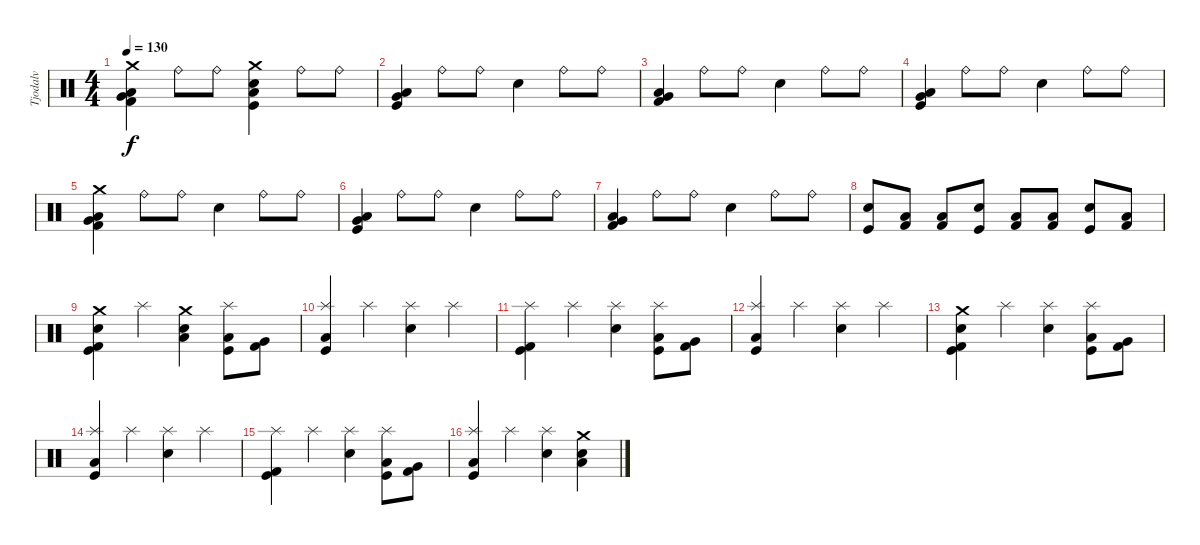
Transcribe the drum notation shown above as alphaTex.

\track ("Tjodalv" "Tjodalv") {instrument percussion}
\staff {score}
\articulation defaults
\ts (4 4)
\tempo 130
\clef neutral
\ks c
("Crash medium (hit)" "Low Floor Tom (hit)" "Very Low Tom (hit)" "Kick (hit) 2").4{dy f} "Ride (bell)".8 "Ride (bell)".8 ("Crash medium (hit)" "Snare (hit) 2" "Low Floor Tom (hit)" "Kick (hit)").4 "Ride (bell)".8 "Ride (bell)".8 |
("Low Floor Tom (hit)" "Very Low Tom (hit)" "Kick (hit)").4 "Ride (bell)".8 "Ride (bell)".8 "Snare (hit) 2".4 "Ride (bell)".8 "Ride (bell)".8 |
("Low Floor Tom (hit)" "Very Low Tom (hit)" "Kick (hit) 2").4 "Ride (bell)".8 "Ride (bell)".8 "Snare (hit) 2".4 "Ride (bell)".8 "Ride (bell)".8 |
("Low Floor Tom (hit)" "Very Low Tom (hit)" "Kick (hit)").4 "Ride (bell)".8 "Ride (bell)".8 "Snare (hit) 2".4 "Ride (bell)".8 "Ride (bell)".8 |
("Crash medium (hit)" "Low Floor Tom (hit)" "Very Low Tom (hit)" "Kick (hit) 2").4 "Ride (bell)".8 "Ride (bell)".8 "Snare (hit) 2".4 "Ride (bell)".8 "Ride (bell)".8 |
("Low Floor Tom (hit)" "Very Low Tom (hit)" "Kick (hit)").4 "Ride (bell)".8 "Ride (bell)".8 "Snare (hit) 2".4 "Ride (bell)".8 "Ride (bell)".8 |
("Low Floor Tom (hit)" "Very Low Tom (hit)" "Kick (hit) 2").4 "Ride (bell)".8 "Ride (bell)".8 "Snare (hit) 2".4 "Ride (bell)".8 "Ride (bell)".8 |
("Snare (hit) 2" "Kick (hit)").8 ("Low Floor Tom (hit)" "Kick (hit) 2").8 ("Low Floor Tom (hit)" "Kick (hit) 2").8 ("Snare (hit) 2" "Kick (hit)").8 ("Low Floor Tom (hit)" "Kick (hit) 2").8 ("Low Floor Tom (hit)" "Kick (hit) 2").8 ("Snare (hit) 2" "Kick (hit)").8 ("Low Floor Tom (hit)" "Kick (hit) 2").8 |
("Crash medium (hit)" "Snare (hit) 2" "Kick (hit)" "Kick (hit) 2").4 "Splash (hit)".4 ("Crash medium (hit)" "Snare (hit) 2" "Low Floor Tom (hit)").4 ("Splash (hit)" "Kick (hit)" "Low Floor Tom (hit)").8 ("Kick (hit) 2" "Very Low Tom (hit)").8 |
("Splash (hit)" "Low Tom (hit)" "Kick (hit)").4 "Splash (hit)".4 ("Splash (hit)" "Snare (hit) 2").4 "Splash (hit)".4 |
("Splash (hit)" "Kick (hit)" "Kick (hit) 2").4 "Splash (hit)".4 ("Splash (hit)" "Snare (hit) 2").4 ("Splash (hit)" "Kick (hit)" "Low Floor Tom (hit)").8 ("Kick (hit) 2" "Very Low Tom (hit)").8 |
("Splash (hit)" "Kick (hit)" "Low Tom (hit)").4 "Splash (hit)".4 ("Splash (hit)" "Snare (hit) 2").4 "Splash (hit)".4 |
("Crash medium (hit)" "Snare (hit) 2" "Kick (hit)" "Kick (hit) 2").4 "Splash (hit)".4 ("Splash (hit)" "Snare (hit) 2").4 ("Splash (hit)" "Kick (hit)" "Low Floor Tom (hit)").8 ("Kick (hit) 2" "Very Low Tom (hit)").8 |
("Splash (hit)" "Low Tom (hit)" "Kick (hit)").4 "Splash (hit)".4 ("Splash (hit)" "Snare (hit) 2").4 "Splash (hit)".4 |
("Splash (hit)" "Kick (hit)" "Kick (hit) 2").4 "Splash (hit)".4 ("Splash (hit)" "Snare (hit) 2").4 ("Splash (hit)" "Kick (hit)" "Low Floor Tom (hit)").8 ("Kick (hit) 2" "Very Low Tom (hit)").8 |
("Splash (hit)" "Low Tom (hit)" "Kick (hit)").4 "Splash (hit)".4 ("Splash (hit)" "Snare (hit) 2").4 ("Snare (hit) 2" "Crash medium (hit)" "Low Floor Tom (hit)").4
